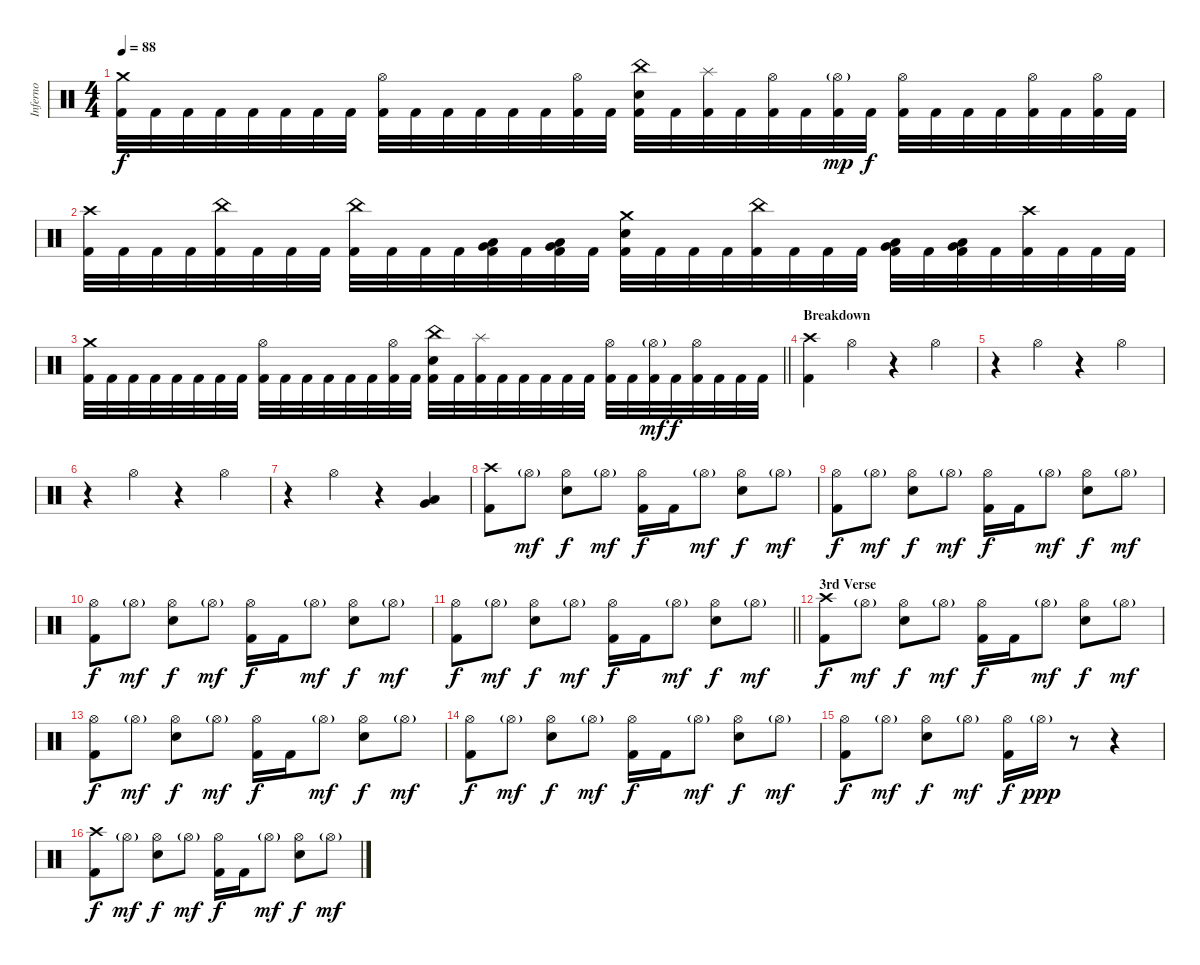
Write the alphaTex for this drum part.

\track ("Inferno" "Inferno") {instrument percussion}
\staff {score}
\articulation defaults
\ts (4 4)
\tempo 88
\clef neutral
\ks c
("Crash medium (hit)" "Kick (hit) 2").32{dy f} "Kick (hit) 2".32 "Kick (hit) 2".32 "Kick (hit) 2".32 "Kick (hit) 2".32 "Kick (hit) 2".32 "Kick (hit) 2".32 "Kick (hit) 2".32 ("Hi-Hat (open)" "Kick (hit) 2").32 "Kick (hit) 2".32 "Kick (hit) 2".32 "Kick (hit) 2".32 "Kick (hit) 2".32 "Kick (hit) 2".32 ("Hi-Hat (open)" "Kick (hit) 2").32 "Kick (hit) 2".32 ("China (hit)" "Snare (hit) 2" "Kick (hit) 2").32 "Kick (hit) 2".32 ("Splash (hit)" "Kick (hit) 2").32 "Kick (hit) 2".32 ("Hi-Hat (open)" "Kick (hit) 2").32 "Kick (hit) 2".32 ("Hi-Hat (open)"{g} "Kick (hit) 2").32{dy mp} "Kick (hit) 2".32{dy f} ("Hi-Hat (open)" "Kick (hit) 2").32 "Kick (hit) 2".32 "Kick (hit) 2".32 "Kick (hit) 2".32 ("Hi-Hat (open)" "Kick (hit) 2").32 "Kick (hit) 2".32 ("Hi-Hat (open)" "Kick (hit) 2").32 "Kick (hit) 2".32 |
("Crash high (hit)" "Kick (hit) 2").32 "Kick (hit) 2".32 "Kick (hit) 2".32 "Kick (hit) 2".32 ("China (hit)" "Kick (hit) 2").32 "Kick (hit) 2".32 "Kick (hit) 2".32 "Kick (hit) 2".32 ("China (hit)" "Kick (hit) 2").32 "Kick (hit) 2".32 "Kick (hit) 2".32 "Kick (hit) 2".32 ("Low Tom (hit)" "Very Low Tom (hit)" "Kick (hit) 2").32 "Kick (hit) 2".32 ("Low Tom (hit)" "Very Low Tom (hit)" "Kick (hit) 2").32 "Kick (hit) 2".32 ("Crash medium (hit)" "Snare (hit) 2" "Kick (hit) 2").32 "Kick (hit) 2".32 "Kick (hit) 2".32 "Kick (hit) 2".32 ("China (hit)" "Kick (hit) 2").32 "Kick (hit) 2".32 "Kick (hit) 2".32 "Kick (hit) 2".32 ("Very Low Tom (hit)" "Low Floor Tom (hit)" "Kick (hit) 2").32 "Kick (hit) 2".32 ("Very Low Tom (hit)" "Low Floor Tom (hit)" "Kick (hit) 2").32 "Kick (hit) 2".32 ("Crash high (hit)" "Kick (hit) 2").32 "Kick (hit) 2".32 "Kick (hit) 2".32 "Kick (hit) 2".32 |
\barLineRight lightlight
("Crash medium (hit)" "Kick (hit) 2").32 "Kick (hit) 2".32 "Kick (hit) 2".32 "Kick (hit) 2".32 "Kick (hit) 2".32 "Kick (hit) 2".32 "Kick (hit) 2".32 "Kick (hit) 2".32 ("Hi-Hat (open)" "Kick (hit) 2").32 "Kick (hit) 2".32 "Kick (hit) 2".32 "Kick (hit) 2".32 "Kick (hit) 2".32 "Kick (hit) 2".32 ("Hi-Hat (open)" "Kick (hit) 2").32 "Kick (hit) 2".32 ("China (hit)" "Snare (hit) 2" "Kick (hit) 2").32 "Kick (hit) 2".32 ("Splash (hit)" "Kick (hit) 2").32 "Kick (hit) 2".32 "Kick (hit) 2".32 "Kick (hit) 2".32 "Kick (hit) 2".32 "Kick (hit) 2".32 ("Hi-Hat (open)" "Kick (hit) 2").32 "Kick (hit) 2".32 ("Hi-Hat (open)"{g} "Kick (hit) 2").32{dy mf} "Kick (hit) 2".32{dy f} ("Hi-Hat (open)" "Kick (hit) 2").32 "Kick (hit) 2".32 "Kick (hit) 2".32 "Kick (hit) 2".32 |
\section ("" "Breakdown")
("Crash high (hit)" "Kick (hit) 2").4 "Hi-Hat (open)".4 r.4 "Hi-Hat (open)".4 |
r.4 "Hi-Hat (open)".4 r.4 "Hi-Hat (open)".4 |
r.4 "Hi-Hat (open)".4 r.4 "Hi-Hat (open)".4 |
r.4 "Hi-Hat (open)".4 r.4 ("Very Low Tom (hit)" "Low Floor Tom (hit)").4 |
("Crash high (hit)" "Kick (hit) 2").8 "Hi-Hat (open)"{g}.8{dy mf} ("Hi-Hat (open)" "Snare (hit) 2").8{dy f} "Hi-Hat (open)"{g}.8{dy mf} ("Hi-Hat (open)" "Kick (hit) 2").16{dy f} "Kick (hit) 2".16 "Hi-Hat (open)"{g}.8{dy mf} ("Hi-Hat (open)" "Snare (hit) 2").8{dy f} "Hi-Hat (open)"{g}.8{dy mf} |
("Hi-Hat (open)" "Kick (hit) 2").8{dy f} "Hi-Hat (open)"{g}.8{dy mf} ("Hi-Hat (open)" "Snare (hit) 2").8{dy f} "Hi-Hat (open)"{g}.8{dy mf} ("Hi-Hat (open)" "Kick (hit) 2").16{dy f} "Kick (hit) 2".16 "Hi-Hat (open)"{g}.8{dy mf} ("Hi-Hat (open)" "Snare (hit) 2").8{dy f} "Hi-Hat (open)"{g}.8{dy mf} |
("Hi-Hat (open)" "Kick (hit) 2").8{dy f} "Hi-Hat (open)"{g}.8{dy mf} ("Hi-Hat (open)" "Snare (hit) 2").8{dy f} "Hi-Hat (open)"{g}.8{dy mf} ("Hi-Hat (open)" "Kick (hit) 2").16{dy f} "Kick (hit) 2".16 "Hi-Hat (open)"{g}.8{dy mf} ("Hi-Hat (open)" "Snare (hit) 2").8{dy f} "Hi-Hat (open)"{g}.8{dy mf} |
\barLineRight lightlight
("Hi-Hat (open)" "Kick (hit) 2").8{dy f} "Hi-Hat (open)"{g}.8{dy mf} ("Hi-Hat (open)" "Snare (hit) 2").8{dy f} "Hi-Hat (open)"{g}.8{dy mf} ("Hi-Hat (open)" "Kick (hit) 2").16{dy f} "Kick (hit) 2".16 "Hi-Hat (open)"{g}.8{dy mf} ("Hi-Hat (open)" "Snare (hit) 2").8{dy f} "Hi-Hat (open)"{g}.8{dy mf} |
\section ("" "3rd Verse")
("Crash high (hit)" "Kick (hit) 2").8{dy f} "Hi-Hat (open)"{g}.8{dy mf} ("Hi-Hat (open)" "Snare (hit) 2").8{dy f} "Hi-Hat (open)"{g}.8{dy mf} ("Hi-Hat (open)" "Kick (hit) 2").16{dy f} "Kick (hit) 2".16 "Hi-Hat (open)"{g}.8{dy mf} ("Hi-Hat (open)" "Snare (hit) 2").8{dy f} "Hi-Hat (open)"{g}.8{dy mf} |
("Hi-Hat (open)" "Kick (hit) 2").8{dy f} "Hi-Hat (open)"{g}.8{dy mf} ("Hi-Hat (open)" "Snare (hit) 2").8{dy f} "Hi-Hat (open)"{g}.8{dy mf} ("Hi-Hat (open)" "Kick (hit) 2").16{dy f} "Kick (hit) 2".16 "Hi-Hat (open)"{g}.8{dy mf} ("Hi-Hat (open)" "Snare (hit) 2").8{dy f} "Hi-Hat (open)"{g}.8{dy mf} |
("Hi-Hat (open)" "Kick (hit) 2").8{dy f} "Hi-Hat (open)"{g}.8{dy mf} ("Hi-Hat (open)" "Snare (hit) 2").8{dy f} "Hi-Hat (open)"{g}.8{dy mf} ("Hi-Hat (open)" "Kick (hit) 2").16{dy f} "Kick (hit) 2".16 "Hi-Hat (open)"{g}.8{dy mf} ("Hi-Hat (open)" "Snare (hit) 2").8{dy f} "Hi-Hat (open)"{g}.8{dy mf} |
("Hi-Hat (open)" "Kick (hit) 2").8{dy f} "Hi-Hat (open)"{g}.8{dy mf} ("Hi-Hat (open)" "Snare (hit) 2").8{dy f} "Hi-Hat (open)"{g}.8{dy mf} ("Hi-Hat (open)" "Kick (hit) 2").16{dy f} "Hi-Hat (open)"{g}.16{dy ppp} r.8 r.4 |
("Crash high (hit)" "Kick (hit) 2").8{dy f} "Hi-Hat (open)"{g}.8{dy mf} ("Hi-Hat (open)" "Snare (hit) 2").8{dy f} "Hi-Hat (open)"{g}.8{dy mf} ("Hi-Hat (open)" "Kick (hit) 2").16{dy f} "Kick (hit) 2".16 "Hi-Hat (open)"{g}.8{dy mf} ("Hi-Hat (open)" "Snare (hit) 2").8{dy f} "Hi-Hat (open)"{g}.8{dy mf}
